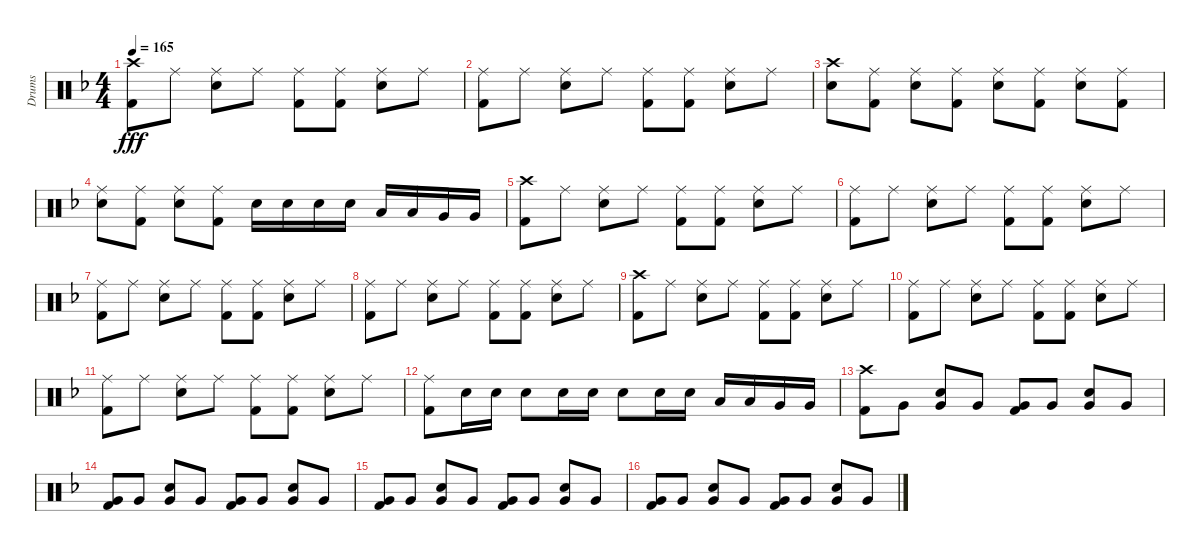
\track ("Drums" "Drums") {instrument percussion}
\staff {score}
\articulation defaults
\ts (4 4)
\tempo 165
\clef neutral
\ks f
("Crash high (hit)" "Kick (hit) 2").8{dy fff} "Ride (middle)".8 ("Ride (middle)" "Electric Snare (hit)").8 "Ride (middle)".8 ("Ride (middle)" "Kick (hit) 2").8 ("Ride (middle)" "Kick (hit) 2").8 ("Ride (middle)" "Electric Snare (hit)").8 "Ride (middle)".8 |
("Ride (middle)" "Kick (hit) 2").8 "Ride (middle)".8 ("Ride (middle)" "Electric Snare (hit)").8 "Ride (middle)".8 ("Ride (middle)" "Kick (hit) 2").8 ("Ride (middle)" "Kick (hit) 2").8 ("Ride (middle)" "Electric Snare (hit)").8 "Ride (middle)".8 |
("Crash high (hit)" "Electric Snare (hit)").8 ("Ride (middle)" "Kick (hit) 2").8 ("Ride (middle)" "Electric Snare (hit)").8 ("Ride (middle)" "Kick (hit) 2").8 ("Ride (middle)" "Electric Snare (hit)").8 ("Ride (middle)" "Kick (hit) 2").8 ("Ride (middle)" "Electric Snare (hit)").8 ("Ride (middle)" "Kick (hit) 2").8 |
("Ride (middle)" "Electric Snare (hit)").8 ("Ride (middle)" "Kick (hit) 2").8 ("Ride (middle)" "Electric Snare (hit)").8 ("Ride (middle)" "Kick (hit) 2").8 "Electric Snare (hit)".16 "Electric Snare (hit)".16 "Electric Snare (hit)".16 "Electric Snare (hit)".16 "Low Tom (hit)".16 "Low Tom (hit)".16 "Very Low Tom (hit)".16 "Very Low Tom (hit)".16 |
("Crash high (hit)" "Kick (hit) 2").8 "Ride (middle)".8 ("Ride (middle)" "Electric Snare (hit)").8 "Ride (middle)".8 ("Ride (middle)" "Kick (hit) 2").8 ("Ride (middle)" "Kick (hit) 2").8 ("Ride (middle)" "Electric Snare (hit)").8 "Ride (middle)".8 |
("Ride (middle)" "Kick (hit) 2").8 "Ride (middle)".8 ("Ride (middle)" "Electric Snare (hit)").8 "Ride (middle)".8 ("Ride (middle)" "Kick (hit) 2").8 ("Ride (middle)" "Kick (hit) 2").8 ("Ride (middle)" "Electric Snare (hit)").8 "Ride (middle)".8 |
("Ride (middle)" "Kick (hit) 2").8 "Ride (middle)".8 ("Ride (middle)" "Electric Snare (hit)").8 "Ride (middle)".8 ("Ride (middle)" "Kick (hit) 2").8 ("Ride (middle)" "Kick (hit) 2").8 ("Ride (middle)" "Electric Snare (hit)").8 "Ride (middle)".8 |
("Ride (middle)" "Kick (hit) 2").8 "Ride (middle)".8 ("Ride (middle)" "Electric Snare (hit)").8 "Ride (middle)".8 ("Ride (middle)" "Kick (hit) 2").8 ("Ride (middle)" "Kick (hit) 2").8 ("Ride (middle)" "Electric Snare (hit)").8 "Ride (middle)".8 |
("Crash high (hit)" "Kick (hit) 2").8 "Ride (middle)".8 ("Ride (middle)" "Electric Snare (hit)").8 "Ride (middle)".8 ("Ride (middle)" "Kick (hit) 2").8 ("Ride (middle)" "Kick (hit) 2").8 ("Ride (middle)" "Electric Snare (hit)").8 "Ride (middle)".8 |
("Ride (middle)" "Kick (hit) 2").8 "Ride (middle)".8 ("Ride (middle)" "Electric Snare (hit)").8 "Ride (middle)".8 ("Ride (middle)" "Kick (hit) 2").8 ("Ride (middle)" "Kick (hit) 2").8 ("Ride (middle)" "Electric Snare (hit)").8 "Ride (middle)".8 |
("Ride (middle)" "Kick (hit) 2").8 "Ride (middle)".8 ("Ride (middle)" "Electric Snare (hit)").8 "Ride (middle)".8 ("Ride (middle)" "Kick (hit) 2").8 ("Ride (middle)" "Kick (hit) 2").8 ("Ride (middle)" "Electric Snare (hit)").8 "Ride (middle)".8 |
("Ride (middle)" "Kick (hit) 2").8 "Electric Snare (hit)".16 "Electric Snare (hit)".16 "Electric Snare (hit)".8 "Electric Snare (hit)".16 "Electric Snare (hit)".16 "Electric Snare (hit)".8 "Electric Snare (hit)".16 "Electric Snare (hit)".16 "Low Tom (hit)".16 "Low Tom (hit)".16 "Very Low Tom (hit)".16 "Very Low Tom (hit)".16 |
("Crash high (hit)" "Kick (hit) 2").8 "Very Low Tom (hit)".8 ("Very Low Tom (hit)" "Electric Snare (hit)").8 "Very Low Tom (hit)".8 ("Very Low Tom (hit)" "Kick (hit) 2").8 "Very Low Tom (hit)".8 ("Very Low Tom (hit)" "Electric Snare (hit)").8 "Very Low Tom (hit)".8 |
("Very Low Tom (hit)" "Kick (hit) 2").8 "Very Low Tom (hit)".8 ("Very Low Tom (hit)" "Electric Snare (hit)").8 "Very Low Tom (hit)".8 ("Very Low Tom (hit)" "Kick (hit) 2").8 "Very Low Tom (hit)".8 ("Very Low Tom (hit)" "Electric Snare (hit)").8 "Very Low Tom (hit)".8 |
("Very Low Tom (hit)" "Kick (hit) 2").8 "Very Low Tom (hit)".8 ("Very Low Tom (hit)" "Electric Snare (hit)").8 "Very Low Tom (hit)".8 ("Very Low Tom (hit)" "Kick (hit) 2").8 "Very Low Tom (hit)".8 ("Very Low Tom (hit)" "Electric Snare (hit)").8 "Very Low Tom (hit)".8 |
("Very Low Tom (hit)" "Kick (hit) 2").8 "Very Low Tom (hit)".8 ("Very Low Tom (hit)" "Electric Snare (hit)").8 "Very Low Tom (hit)".8 ("Very Low Tom (hit)" "Kick (hit) 2").8 "Very Low Tom (hit)".8 ("Very Low Tom (hit)" "Electric Snare (hit)").8 "Very Low Tom (hit)".8
